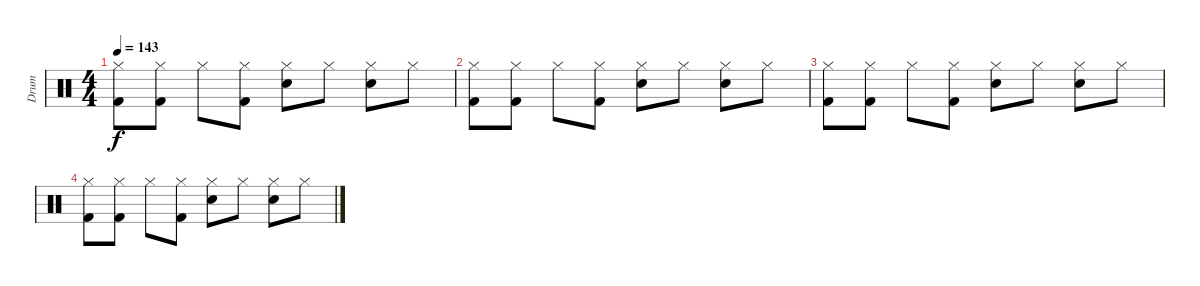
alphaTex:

\track ("Drum" "Drum") {instrument percussion}
\staff {score}
\articulation defaults
\ts (4 4)
\tempo 143
\clef neutral
\ks c
("Hi-Hat (closed)" "Kick (hit) 2").8{dy f} ("Hi-Hat (closed)" "Kick (hit) 2").8 "Hi-Hat (closed)".8 ("Hi-Hat (closed)" "Kick (hit) 2").8 ("Hi-Hat (closed)" "Electric Snare (hit)").8 "Hi-Hat (closed)".8 ("Hi-Hat (closed)" "Electric Snare (hit)").8 "Hi-Hat (closed)".8 |
("Hi-Hat (closed)" "Kick (hit) 2").8 ("Hi-Hat (closed)" "Kick (hit) 2").8 "Hi-Hat (closed)".8 ("Hi-Hat (closed)" "Kick (hit) 2").8 ("Hi-Hat (closed)" "Electric Snare (hit)").8 "Hi-Hat (closed)".8 ("Hi-Hat (closed)" "Electric Snare (hit)").8 "Hi-Hat (closed)".8 |
("Hi-Hat (closed)" "Kick (hit) 2").8 ("Hi-Hat (closed)" "Kick (hit) 2").8 "Hi-Hat (closed)".8 ("Hi-Hat (closed)" "Kick (hit) 2").8 ("Hi-Hat (closed)" "Electric Snare (hit)").8 "Hi-Hat (closed)".8 ("Hi-Hat (closed)" "Electric Snare (hit)").8 "Hi-Hat (closed)".8 |
("Hi-Hat (closed)" "Kick (hit) 2").8 ("Hi-Hat (closed)" "Kick (hit) 2").8 "Hi-Hat (closed)".8 ("Hi-Hat (closed)" "Kick (hit) 2").8 ("Hi-Hat (closed)" "Electric Snare (hit)").8 "Hi-Hat (closed)".8 ("Hi-Hat (closed)" "Electric Snare (hit)").8 "Hi-Hat (closed)".8
